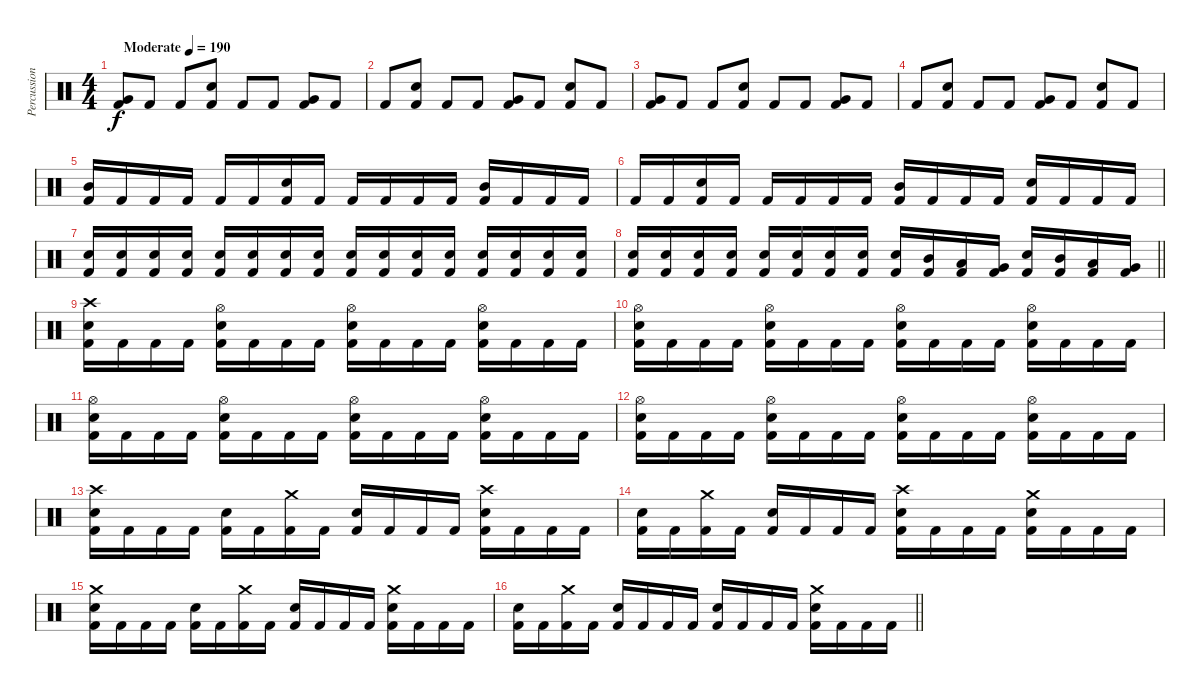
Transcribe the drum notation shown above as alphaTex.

\track ("Percussion" "Percussion") {instrument percussion}
\staff {score}
\articulation defaults
\ts (4 4)
\tempo (190 "Moderate")
\clef neutral
\ks c
("Very Low Tom (hit)" "Kick (hit) 2").8{dy f} "Kick (hit) 2".8 "Kick (hit) 2".8 ("Snare (hit) 2" "Kick (hit) 2").8 "Kick (hit) 2".8 "Kick (hit) 2".8 ("Very Low Tom (hit)" "Kick (hit) 2").8 "Kick (hit) 2".8 |
"Kick (hit) 2".8 ("Snare (hit) 2" "Kick (hit) 2").8 "Kick (hit) 2".8 "Kick (hit) 2".8 ("Very Low Tom (hit)" "Kick (hit) 2").8 "Kick (hit) 2".8 ("Snare (hit) 2" "Kick (hit) 2").8 "Kick (hit) 2".8 |
("Very Low Tom (hit)" "Kick (hit) 2").8 "Kick (hit) 2".8 "Kick (hit) 2".8 ("Snare (hit) 2" "Kick (hit) 2").8 "Kick (hit) 2".8 "Kick (hit) 2".8 ("Very Low Tom (hit)" "Kick (hit) 2").8 "Kick (hit) 2".8 |
"Kick (hit) 2".8 ("Snare (hit) 2" "Kick (hit) 2").8 "Kick (hit) 2".8 "Kick (hit) 2".8 ("Very Low Tom (hit)" "Kick (hit) 2").8 "Kick (hit) 2".8 ("Snare (hit) 2" "Kick (hit) 2").8 "Kick (hit) 2".8 |
("Mid Tom (hit)" "Kick (hit) 2").16 "Kick (hit) 2".16 "Kick (hit) 2".16 "Kick (hit) 2".16 "Kick (hit) 2".16 "Kick (hit) 2".16 ("Snare (hit) 2" "Kick (hit) 2").16 "Kick (hit) 2".16 "Kick (hit) 2".16 "Kick (hit) 2".16 "Kick (hit) 2".16 "Kick (hit) 2".16 ("Mid Tom (hit)" "Kick (hit) 2").16 "Kick (hit) 2".16 "Kick (hit) 2".16 "Kick (hit) 2".16 |
"Kick (hit) 2".16 "Kick (hit) 2".16 ("Snare (hit) 2" "Kick (hit) 2").16 "Kick (hit) 2".16 "Kick (hit) 2".16 "Kick (hit) 2".16 "Kick (hit) 2".16 "Kick (hit) 2".16 ("Mid Tom (hit)" "Kick (hit) 2").16 "Kick (hit) 2".16 "Kick (hit) 2".16 "Kick (hit) 2".16 ("Snare (hit) 2" "Kick (hit) 2").16 "Kick (hit) 2".16 "Kick (hit) 2".16 "Kick (hit) 2".16 |
("Snare (hit) 2" "Kick (hit) 2").16 ("Snare (hit) 2" "Kick (hit) 2").16 ("Snare (hit) 2" "Kick (hit) 2").16 ("Snare (hit) 2" "Kick (hit) 2").16 ("Snare (hit) 2" "Kick (hit) 2").16 ("Snare (hit) 2" "Kick (hit) 2").16 ("Snare (hit) 2" "Kick (hit) 2").16 ("Snare (hit) 2" "Kick (hit) 2").16 ("Snare (hit) 2" "Kick (hit) 2").16 ("Snare (hit) 2" "Kick (hit) 2").16 ("Snare (hit) 2" "Kick (hit) 2").16 ("Snare (hit) 2" "Kick (hit) 2").16 ("Snare (hit) 2" "Kick (hit) 2").16 ("Snare (hit) 2" "Kick (hit) 2").16 ("Snare (hit) 2" "Kick (hit) 2").16 ("Snare (hit) 2" "Kick (hit) 2").16 |
\barLineRight lightlight
("Snare (hit) 2" "Kick (hit) 2").16 ("Snare (hit) 2" "Kick (hit) 2").16 ("Snare (hit) 2" "Kick (hit) 2").16 ("Snare (hit) 2" "Kick (hit) 2").16 ("Snare (hit) 2" "Kick (hit) 2").16 ("Snare (hit) 2" "Kick (hit) 2").16 ("Snare (hit) 2" "Kick (hit) 2").16 ("Snare (hit) 2" "Kick (hit) 2").16 ("Snare (hit) 2" "Kick (hit) 2").16 ("Mid Tom (hit)" "Kick (hit) 2").16 ("Low Tom (hit)" "Kick (hit) 2").16 ("Very Low Tom (hit)" "Kick (hit) 2").16 ("Snare (hit) 2" "Kick (hit) 2").16 ("Mid Tom (hit)" "Kick (hit) 2").16 ("Low Tom (hit)" "Kick (hit) 2").16 ("Very Low Tom (hit)" "Kick (hit) 2").16 |
("Crash high (hit)" "Snare (hit) 2" "Kick (hit) 2").16 "Kick (hit) 2".16 "Kick (hit) 2".16 "Kick (hit) 2".16 ("Hi-Hat (open)" "Snare (hit) 2" "Kick (hit) 2").16 "Kick (hit) 2".16 "Kick (hit) 2".16 "Kick (hit) 2".16 ("Hi-Hat (open)" "Snare (hit) 2" "Kick (hit) 2").16 "Kick (hit) 2".16 "Kick (hit) 2".16 "Kick (hit) 2".16 ("Hi-Hat (open)" "Snare (hit) 2" "Kick (hit) 2").16 "Kick (hit) 2".16 "Kick (hit) 2".16 "Kick (hit) 2".16 |
("Hi-Hat (open)" "Snare (hit) 2" "Kick (hit) 2").16 "Kick (hit) 2".16 "Kick (hit) 2".16 "Kick (hit) 2".16 ("Hi-Hat (open)" "Snare (hit) 2" "Kick (hit) 2").16 "Kick (hit) 2".16 "Kick (hit) 2".16 "Kick (hit) 2".16 ("Hi-Hat (open)" "Snare (hit) 2" "Kick (hit) 2").16 "Kick (hit) 2".16 "Kick (hit) 2".16 "Kick (hit) 2".16 ("Hi-Hat (open)" "Snare (hit) 2" "Kick (hit) 2").16 "Kick (hit) 2".16 "Kick (hit) 2".16 "Kick (hit) 2".16 |
("Hi-Hat (open)" "Snare (hit) 2" "Kick (hit) 2").16 "Kick (hit) 2".16 "Kick (hit) 2".16 "Kick (hit) 2".16 ("Hi-Hat (open)" "Snare (hit) 2" "Kick (hit) 2").16 "Kick (hit) 2".16 "Kick (hit) 2".16 "Kick (hit) 2".16 ("Hi-Hat (open)" "Snare (hit) 2" "Kick (hit) 2").16 "Kick (hit) 2".16 "Kick (hit) 2".16 "Kick (hit) 2".16 ("Hi-Hat (open)" "Snare (hit) 2" "Kick (hit) 2").16 "Kick (hit) 2".16 "Kick (hit) 2".16 "Kick (hit) 2".16 |
("Hi-Hat (open)" "Snare (hit) 2" "Kick (hit) 2").16 "Kick (hit) 2".16 "Kick (hit) 2".16 "Kick (hit) 2".16 ("Hi-Hat (open)" "Snare (hit) 2" "Kick (hit) 2").16 "Kick (hit) 2".16 "Kick (hit) 2".16 "Kick (hit) 2".16 ("Hi-Hat (open)" "Snare (hit) 2" "Kick (hit) 2").16 "Kick (hit) 2".16 "Kick (hit) 2".16 "Kick (hit) 2".16 ("Hi-Hat (open)" "Snare (hit) 2" "Kick (hit) 2").16 "Kick (hit) 2".16 "Kick (hit) 2".16 "Kick (hit) 2".16 |
("Crash high (hit)" "Snare (hit) 2" "Kick (hit) 2").16 "Kick (hit) 2".16 "Kick (hit) 2".16 "Kick (hit) 2".16 ("Snare (hit) 2" "Kick (hit) 2").16 "Kick (hit) 2".16 ("Crash medium (hit)" "Kick (hit) 2").16 "Kick (hit) 2".16 ("Snare (hit) 2" "Kick (hit) 2").16 "Kick (hit) 2".16 "Kick (hit) 2".16 "Kick (hit) 2".16 ("Crash high (hit)" "Snare (hit) 2" "Kick (hit) 2").16 "Kick (hit) 2".16 "Kick (hit) 2".16 "Kick (hit) 2".16 |
("Snare (hit) 2" "Kick (hit) 2").16 "Kick (hit) 2".16 ("Crash medium (hit)" "Kick (hit) 2").16 "Kick (hit) 2".16 ("Snare (hit) 2" "Kick (hit) 2").16 "Kick (hit) 2".16 "Kick (hit) 2".16 "Kick (hit) 2".16 ("Crash high (hit)" "Snare (hit) 2" "Kick (hit) 2").16 "Kick (hit) 2".16 "Kick (hit) 2".16 "Kick (hit) 2".16 ("Crash medium (hit)" "Snare (hit) 2" "Kick (hit) 2").16 "Kick (hit) 2".16 "Kick (hit) 2".16 "Kick (hit) 2".16 |
("Crash medium (hit)" "Snare (hit) 2" "Kick (hit) 2").16 "Kick (hit) 2".16 "Kick (hit) 2".16 "Kick (hit) 2".16 ("Snare (hit) 2" "Kick (hit) 2").16 "Kick (hit) 2".16 ("Crash medium (hit)" "Kick (hit) 2").16 "Kick (hit) 2".16 ("Snare (hit) 2" "Kick (hit) 2").16 "Kick (hit) 2".16 "Kick (hit) 2".16 "Kick (hit) 2".16 ("Crash medium (hit)" "Snare (hit) 2" "Kick (hit) 2").16 "Kick (hit) 2".16 "Kick (hit) 2".16 "Kick (hit) 2".16 |
\barLineRight lightlight
("Snare (hit) 2" "Kick (hit) 2").16 "Kick (hit) 2".16 ("Crash medium (hit)" "Kick (hit) 2").16 "Kick (hit) 2".16 ("Snare (hit) 2" "Kick (hit) 2").16 "Kick (hit) 2".16 "Kick (hit) 2".16 "Kick (hit) 2".16 ("Snare (hit) 2" "Kick (hit) 2").16 "Kick (hit) 2".16 "Kick (hit) 2".16 "Kick (hit) 2".16 ("Crash medium (hit)" "Snare (hit) 2" "Kick (hit) 2").16 "Kick (hit) 2".16 "Kick (hit) 2".16 "Kick (hit) 2".16
